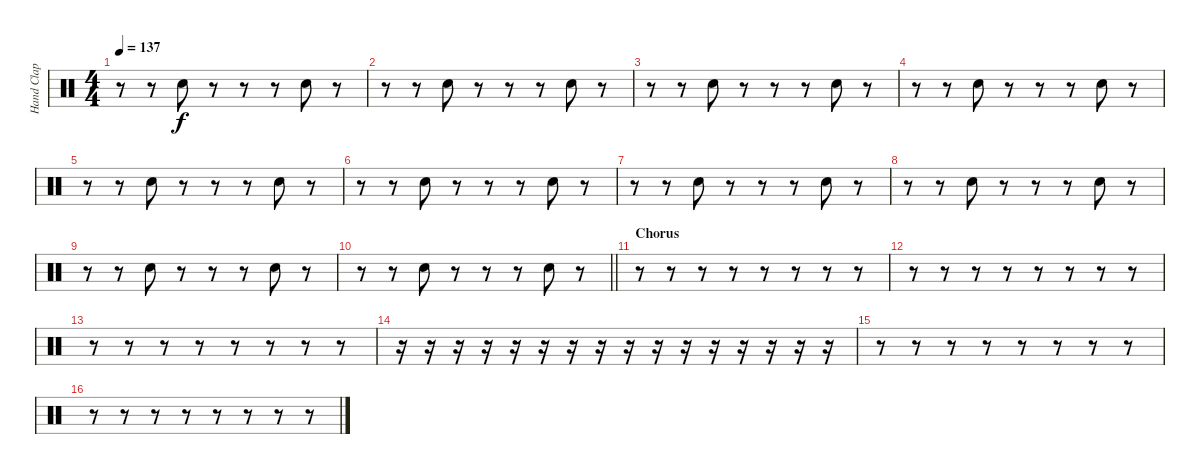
\track ("Hand Clap" "Hand Clap") {instrument percussion}
\staff {score}
\articulation defaults
\ts (4 4)
\tempo 137
\clef neutral
\ks c
r.8{dy f} r.8 "Hand Clap (hit)".8 r.8 r.8 r.8 "Hand Clap (hit)".8 r.8 |
r.8 r.8 "Hand Clap (hit)".8 r.8 r.8 r.8 "Hand Clap (hit)".8 r.8 |
r.8 r.8 "Hand Clap (hit)".8 r.8 r.8 r.8 "Hand Clap (hit)".8 r.8 |
r.8 r.8 "Hand Clap (hit)".8 r.8 r.8 r.8 "Hand Clap (hit)".8 r.8 |
r.8 r.8 "Hand Clap (hit)".8 r.8 r.8 r.8 "Hand Clap (hit)".8 r.8 |
r.8 r.8 "Hand Clap (hit)".8 r.8 r.8 r.8 "Hand Clap (hit)".8 r.8 |
r.8 r.8 "Hand Clap (hit)".8 r.8 r.8 r.8 "Hand Clap (hit)".8 r.8 |
r.8 r.8 "Hand Clap (hit)".8 r.8 r.8 r.8 "Hand Clap (hit)".8 r.8 |
r.8 r.8 "Hand Clap (hit)".8 r.8 r.8 r.8 "Hand Clap (hit)".8 r.8 |
\barLineRight lightlight
r.8 r.8 "Hand Clap (hit)".8 r.8 r.8 r.8 "Hand Clap (hit)".8 r.8 |
\section ("" "Chorus")
r.8 r.8 r.8 r.8 r.8 r.8 r.8 r.8 |
r.8 r.8 r.8 r.8 r.8 r.8 r.8 r.8 |
r.8 r.8 r.8 r.8 r.8 r.8 r.8 r.8 |
r.16 r.16 r.16 r.16 r.16 r.16 r.16 r.16 r.16 r.16 r.16 r.16 r.16 r.16 r.16 r.16 |
r.8 r.8 r.8 r.8 r.8 r.8 r.8 r.8 |
r.8 r.8 r.8 r.8 r.8 r.8 r.8 r.8
